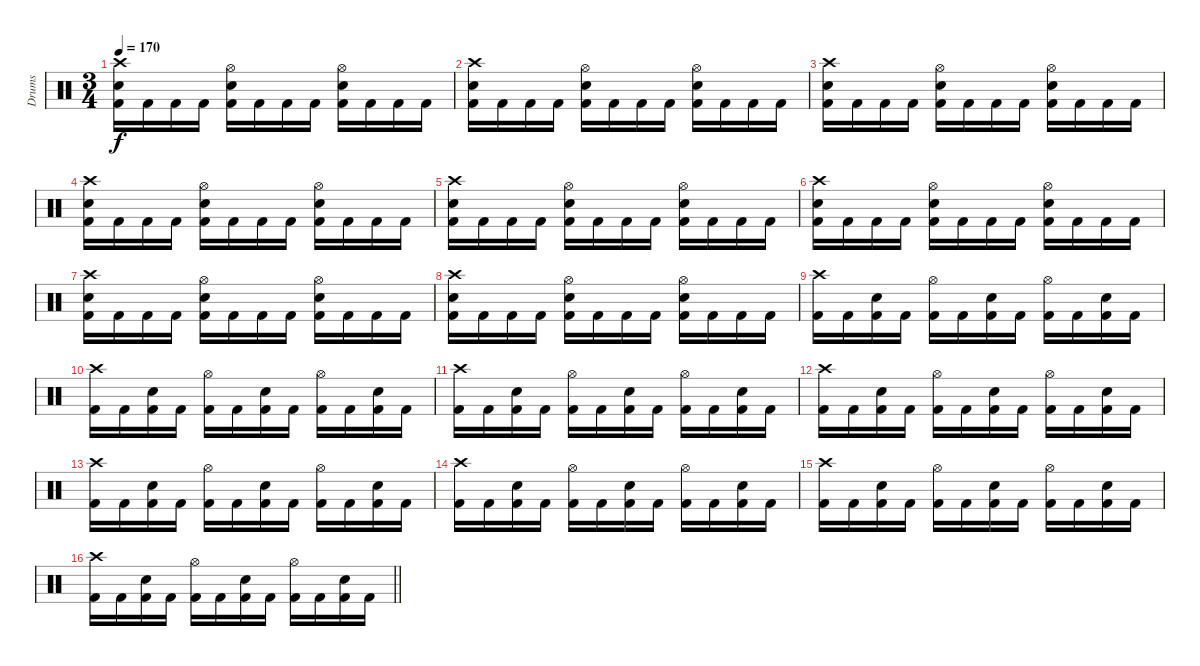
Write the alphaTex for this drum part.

\track ("Drums" "Drums") {instrument percussion}
\staff {score}
\articulation defaults
\ts (3 4)
\tempo 170
\clef neutral
\ks c
("Crash high (hit)" "Snare (hit) 2" "Kick (hit) 2").16{dy f} "Kick (hit) 2".16 "Kick (hit) 2".16 "Kick (hit) 2".16 ("Hi-Hat (open)" "Snare (hit) 2" "Kick (hit) 2").16 "Kick (hit) 2".16 "Kick (hit) 2".16 "Kick (hit) 2".16 ("Hi-Hat (open)" "Snare (hit) 2" "Kick (hit) 2").16 "Kick (hit) 2".16 "Kick (hit) 2".16 "Kick (hit) 2".16 |
("Crash high (hit)" "Snare (hit) 2" "Kick (hit) 2").16 "Kick (hit) 2".16 "Kick (hit) 2".16 "Kick (hit) 2".16 ("Hi-Hat (open)" "Snare (hit) 2" "Kick (hit) 2").16 "Kick (hit) 2".16 "Kick (hit) 2".16 "Kick (hit) 2".16 ("Hi-Hat (open)" "Snare (hit) 2" "Kick (hit) 2").16 "Kick (hit) 2".16 "Kick (hit) 2".16 "Kick (hit) 2".16 |
("Crash high (hit)" "Snare (hit) 2" "Kick (hit) 2").16 "Kick (hit) 2".16 "Kick (hit) 2".16 "Kick (hit) 2".16 ("Hi-Hat (open)" "Snare (hit) 2" "Kick (hit) 2").16 "Kick (hit) 2".16 "Kick (hit) 2".16 "Kick (hit) 2".16 ("Hi-Hat (open)" "Snare (hit) 2" "Kick (hit) 2").16 "Kick (hit) 2".16 "Kick (hit) 2".16 "Kick (hit) 2".16 |
("Crash high (hit)" "Snare (hit) 2" "Kick (hit) 2").16 "Kick (hit) 2".16 "Kick (hit) 2".16 "Kick (hit) 2".16 ("Hi-Hat (open)" "Snare (hit) 2" "Kick (hit) 2").16 "Kick (hit) 2".16 "Kick (hit) 2".16 "Kick (hit) 2".16 ("Hi-Hat (open)" "Snare (hit) 2" "Kick (hit) 2").16 "Kick (hit) 2".16 "Kick (hit) 2".16 "Kick (hit) 2".16 |
("Crash high (hit)" "Snare (hit) 2" "Kick (hit) 2").16 "Kick (hit) 2".16 "Kick (hit) 2".16 "Kick (hit) 2".16 ("Hi-Hat (open)" "Snare (hit) 2" "Kick (hit) 2").16 "Kick (hit) 2".16 "Kick (hit) 2".16 "Kick (hit) 2".16 ("Hi-Hat (open)" "Snare (hit) 2" "Kick (hit) 2").16 "Kick (hit) 2".16 "Kick (hit) 2".16 "Kick (hit) 2".16 |
("Crash high (hit)" "Snare (hit) 2" "Kick (hit) 2").16 "Kick (hit) 2".16 "Kick (hit) 2".16 "Kick (hit) 2".16 ("Hi-Hat (open)" "Snare (hit) 2" "Kick (hit) 2").16 "Kick (hit) 2".16 "Kick (hit) 2".16 "Kick (hit) 2".16 ("Hi-Hat (open)" "Snare (hit) 2" "Kick (hit) 2").16 "Kick (hit) 2".16 "Kick (hit) 2".16 "Kick (hit) 2".16 |
("Crash high (hit)" "Snare (hit) 2" "Kick (hit) 2").16 "Kick (hit) 2".16 "Kick (hit) 2".16 "Kick (hit) 2".16 ("Hi-Hat (open)" "Snare (hit) 2" "Kick (hit) 2").16 "Kick (hit) 2".16 "Kick (hit) 2".16 "Kick (hit) 2".16 ("Hi-Hat (open)" "Snare (hit) 2" "Kick (hit) 2").16 "Kick (hit) 2".16 "Kick (hit) 2".16 "Kick (hit) 2".16 |
("Crash high (hit)" "Snare (hit) 2" "Kick (hit) 2").16 "Kick (hit) 2".16 "Kick (hit) 2".16 "Kick (hit) 2".16 ("Hi-Hat (open)" "Snare (hit) 2" "Kick (hit) 2").16 "Kick (hit) 2".16 "Kick (hit) 2".16 "Kick (hit) 2".16 ("Hi-Hat (open)" "Snare (hit) 2" "Kick (hit) 2").16 "Kick (hit) 2".16 "Kick (hit) 2".16 "Kick (hit) 2".16 |
("Crash high (hit)" "Kick (hit) 2").16 "Kick (hit) 2".16 ("Snare (hit) 2" "Kick (hit) 2").16 "Kick (hit) 2".16 ("Hi-Hat (open)" "Kick (hit) 2").16 "Kick (hit) 2".16 ("Snare (hit) 2" "Kick (hit) 2").16 "Kick (hit) 2".16 ("Hi-Hat (open)" "Kick (hit) 2").16 "Kick (hit) 2".16 ("Snare (hit) 2" "Kick (hit) 2").16 "Kick (hit) 2".16 |
("Crash high (hit)" "Kick (hit) 2").16 "Kick (hit) 2".16 ("Snare (hit) 2" "Kick (hit) 2").16 "Kick (hit) 2".16 ("Hi-Hat (open)" "Kick (hit) 2").16 "Kick (hit) 2".16 ("Snare (hit) 2" "Kick (hit) 2").16 "Kick (hit) 2".16 ("Hi-Hat (open)" "Kick (hit) 2").16 "Kick (hit) 2".16 ("Snare (hit) 2" "Kick (hit) 2").16 "Kick (hit) 2".16 |
("Crash high (hit)" "Kick (hit) 2").16 "Kick (hit) 2".16 ("Snare (hit) 2" "Kick (hit) 2").16 "Kick (hit) 2".16 ("Hi-Hat (open)" "Kick (hit) 2").16 "Kick (hit) 2".16 ("Snare (hit) 2" "Kick (hit) 2").16 "Kick (hit) 2".16 ("Hi-Hat (open)" "Kick (hit) 2").16 "Kick (hit) 2".16 ("Snare (hit) 2" "Kick (hit) 2").16 "Kick (hit) 2".16 |
("Crash high (hit)" "Kick (hit) 2").16 "Kick (hit) 2".16 ("Snare (hit) 2" "Kick (hit) 2").16 "Kick (hit) 2".16 ("Hi-Hat (open)" "Kick (hit) 2").16 "Kick (hit) 2".16 ("Snare (hit) 2" "Kick (hit) 2").16 "Kick (hit) 2".16 ("Hi-Hat (open)" "Kick (hit) 2").16 "Kick (hit) 2".16 ("Snare (hit) 2" "Kick (hit) 2").16 "Kick (hit) 2".16 |
("Crash high (hit)" "Kick (hit) 2").16 "Kick (hit) 2".16 ("Snare (hit) 2" "Kick (hit) 2").16 "Kick (hit) 2".16 ("Hi-Hat (open)" "Kick (hit) 2").16 "Kick (hit) 2".16 ("Snare (hit) 2" "Kick (hit) 2").16 "Kick (hit) 2".16 ("Hi-Hat (open)" "Kick (hit) 2").16 "Kick (hit) 2".16 ("Snare (hit) 2" "Kick (hit) 2").16 "Kick (hit) 2".16 |
("Crash high (hit)" "Kick (hit) 2").16 "Kick (hit) 2".16 ("Snare (hit) 2" "Kick (hit) 2").16 "Kick (hit) 2".16 ("Hi-Hat (open)" "Kick (hit) 2").16 "Kick (hit) 2".16 ("Snare (hit) 2" "Kick (hit) 2").16 "Kick (hit) 2".16 ("Hi-Hat (open)" "Kick (hit) 2").16 "Kick (hit) 2".16 ("Snare (hit) 2" "Kick (hit) 2").16 "Kick (hit) 2".16 |
("Crash high (hit)" "Kick (hit) 2").16 "Kick (hit) 2".16 ("Snare (hit) 2" "Kick (hit) 2").16 "Kick (hit) 2".16 ("Hi-Hat (open)" "Kick (hit) 2").16 "Kick (hit) 2".16 ("Snare (hit) 2" "Kick (hit) 2").16 "Kick (hit) 2".16 ("Hi-Hat (open)" "Kick (hit) 2").16 "Kick (hit) 2".16 ("Snare (hit) 2" "Kick (hit) 2").16 "Kick (hit) 2".16 |
\barLineRight lightlight
("Crash high (hit)" "Kick (hit) 2").16 "Kick (hit) 2".16 ("Snare (hit) 2" "Kick (hit) 2").16 "Kick (hit) 2".16 ("Hi-Hat (open)" "Kick (hit) 2").16 "Kick (hit) 2".16 ("Snare (hit) 2" "Kick (hit) 2").16 "Kick (hit) 2".16 ("Hi-Hat (open)" "Kick (hit) 2").16 "Kick (hit) 2".16 ("Snare (hit) 2" "Kick (hit) 2").16 "Kick (hit) 2".16
